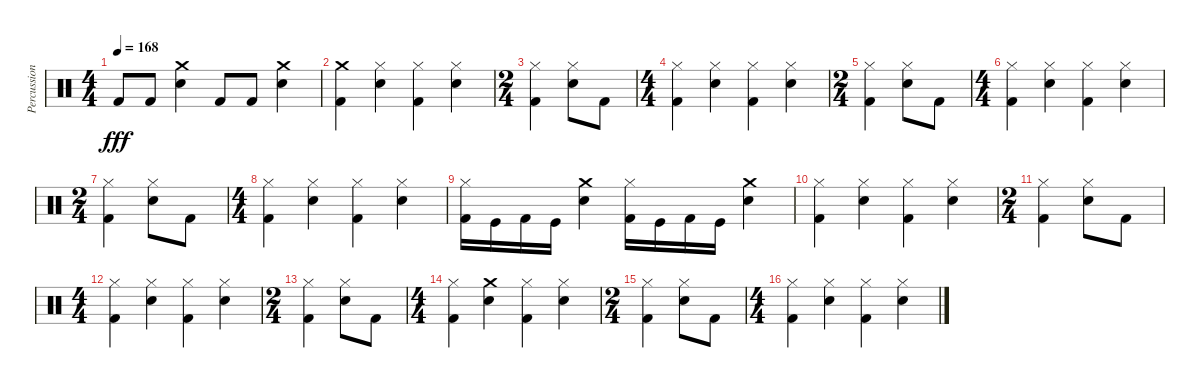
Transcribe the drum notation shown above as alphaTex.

\track ("Percussion" "Percussion") {instrument percussion}
\staff {score}
\articulation defaults
\ts (4 4)
\tempo 168
\clef neutral
\ks c "Kick (hit) 2".8{dy fff} "Kick (hit) 2".8
("Crash medium (hit)" "Snare (hit) 2").4 "Kick (hit) 2".8 "Kick (hit) 2".8 ("Crash medium (hit)" "Snare (hit) 2").4 |
("Kick (hit) 2" "Crash medium (hit)").4 ("Hi-Hat (closed)" "Snare (hit) 2").4 ("Hi-Hat (closed)" "Kick (hit) 2").4 ("Snare (hit) 2" "Hi-Hat (closed)").4 |
\ts (2 4)
("Hi-Hat (closed)" "Kick (hit) 2").4 ("Snare (hit) 2" "Hi-Hat (closed)").8 "Kick (hit) 2".8 |
\ts (4 4)
("Kick (hit) 2" "Hi-Hat (closed)").4 ("Snare (hit) 2" "Hi-Hat (closed)").4 ("Kick (hit) 2" "Hi-Hat (closed)").4 ("Snare (hit) 2" "Hi-Hat (closed)").4 |
\ts (2 4)
("Hi-Hat (closed)" "Kick (hit) 2").4 ("Snare (hit) 2" "Hi-Hat (closed)").8 "Kick (hit) 2".8 |
\ts (4 4)
("Kick (hit) 2" "Hi-Hat (closed)").4 ("Snare (hit) 2" "Hi-Hat (closed)").4 ("Kick (hit) 2" "Hi-Hat (closed)").4 ("Snare (hit) 2" "Hi-Hat (closed)").4 |
\ts (2 4)
("Hi-Hat (closed)" "Kick (hit) 2").4 ("Snare (hit) 2" "Hi-Hat (closed)").8 "Kick (hit) 2".8 |
\ts (4 4)
("Kick (hit) 2" "Hi-Hat (closed)").4 ("Snare (hit) 2" "Hi-Hat (closed)").4 ("Kick (hit) 2" "Hi-Hat (closed)").4 ("Snare (hit) 2" "Hi-Hat (closed)").4 |
("Hi-Hat (closed)" "Kick (hit) 2").16 "Kick (hit)".16 "Kick (hit) 2".16 "Kick (hit)".16 ("Crash medium (hit)" "Snare (hit) 2").4 ("Hi-Hat (closed)" "Kick (hit) 2").16 "Kick (hit)".16 "Kick (hit) 2".16 "Kick (hit)".16 ("Crash medium (hit)" "Snare (hit) 2").4 |
("Kick (hit) 2" "Hi-Hat (closed)").4 ("Snare (hit) 2" "Hi-Hat (closed)").4 ("Kick (hit) 2" "Hi-Hat (closed)").4 ("Snare (hit) 2" "Hi-Hat (closed)").4 |
\ts (2 4)
("Hi-Hat (closed)" "Kick (hit) 2").4 ("Snare (hit) 2" "Hi-Hat (closed)").8 "Kick (hit) 2".8 |
\ts (4 4)
("Kick (hit) 2" "Hi-Hat (closed)").4 ("Snare (hit) 2" "Hi-Hat (closed)").4 ("Kick (hit) 2" "Hi-Hat (closed)").4 ("Snare (hit) 2" "Hi-Hat (closed)").4 |
\ts (2 4)
("Hi-Hat (closed)" "Kick (hit) 2").4 ("Snare (hit) 2" "Hi-Hat (closed)").8 "Kick (hit) 2".8 |
\ts (4 4)
("Kick (hit) 2" "Hi-Hat (closed)").4 ("Crash medium (hit)" "Snare (hit) 2").4 ("Kick (hit) 2" "Hi-Hat (closed)").4 ("Snare (hit) 2" "Hi-Hat (closed)").4 |
\ts (2 4)
("Hi-Hat (closed)" "Kick (hit) 2").4 ("Snare (hit) 2" "Hi-Hat (closed)").8 "Kick (hit) 2".8 |
\ts (4 4)
("Kick (hit) 2" "Hi-Hat (closed)").4 ("Snare (hit) 2" "Hi-Hat (closed)").4 ("Kick (hit) 2" "Hi-Hat (closed)").4 ("Snare (hit) 2" "Hi-Hat (closed)").4
